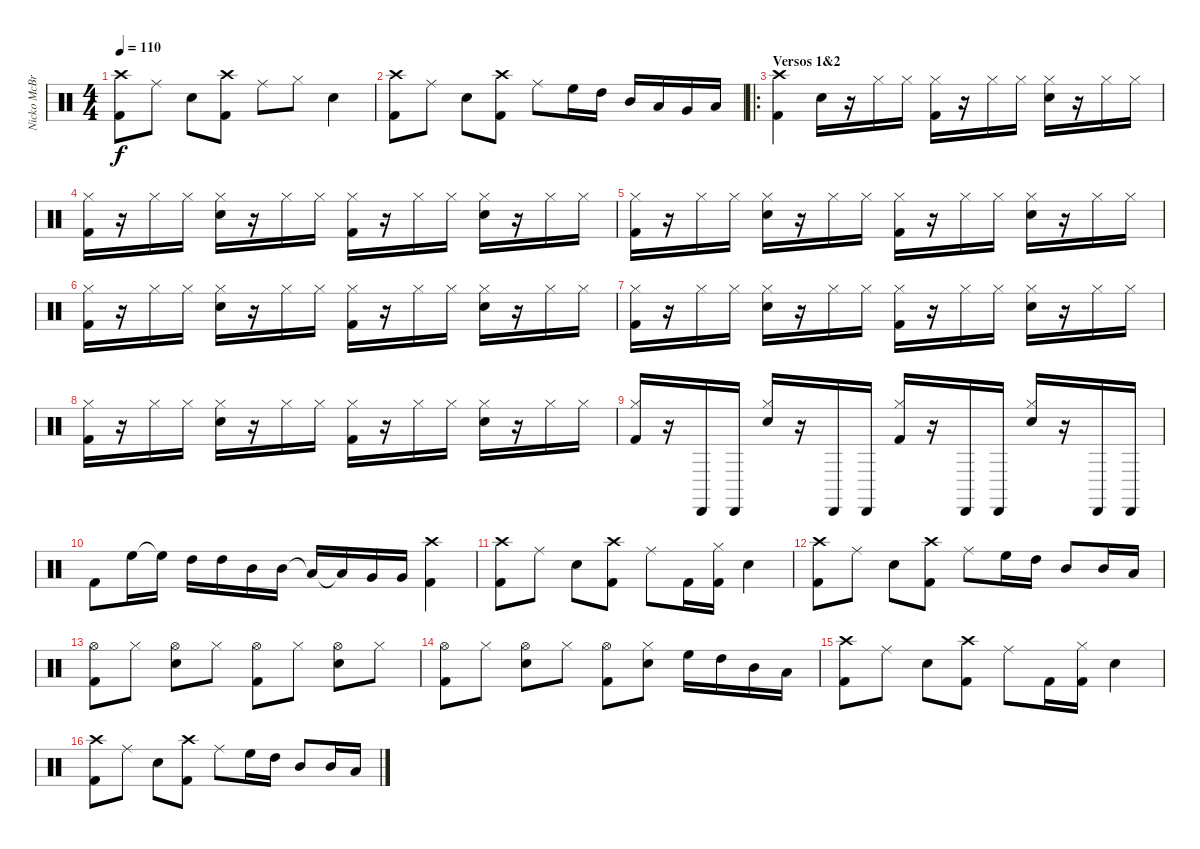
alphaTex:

\track ("Nicko McBrain" "Nicko McBr") {instrument percussion}
\staff {score}
\articulation defaults
\ts (4 4)
\tempo 110
\clef neutral
\ks c
("Crash high (hit)" "Kick (hit) 2").8{dy f} "Ride (middle)".8 "Snare (hit) 2".8 ("Crash high (hit)" "Kick (hit) 2").8 "Ride (middle)".8 "Hi-Hat (closed)".8 "Snare (hit) 2".4 |
("Crash high (hit)" "Kick (hit) 2").8 "Ride (middle)".8 "Snare (hit) 2".8 ("Crash high (hit)" "Kick (hit) 2").8 "Ride (middle)".8 "High Floor Tom (hit)".16 "High Tom (hit)".16 "Mid Tom (hit)".16 "Low Tom (hit)".16 "Very Low Tom (hit)".16 "Low Floor Tom (hit)".16 |
\ro
\section ("" "Versos 1&2")
("Crash high (hit)" "Kick (hit) 2").4 "Snare (hit) 2".16 r.16 "Hi-Hat (closed)".16 "Hi-Hat (closed)".16 ("Hi-Hat (closed)" "Kick (hit) 2").16 r.16 "Hi-Hat (closed)".16 "Hi-Hat (closed)".16 ("Hi-Hat (closed)" "Snare (hit) 2").16 r.16 "Hi-Hat (closed)".16 "Hi-Hat (closed)".16 |
("Hi-Hat (closed)" "Kick (hit) 2").16 r.16 "Hi-Hat (closed)".16 "Hi-Hat (closed)".16 ("Hi-Hat (closed)" "Snare (hit) 2").16 r.16 "Hi-Hat (closed)".16 "Hi-Hat (closed)".16 ("Hi-Hat (closed)" "Kick (hit) 2").16 r.16 "Hi-Hat (closed)".16 "Hi-Hat (closed)".16 ("Hi-Hat (closed)" "Snare (hit) 2").16 r.16 "Hi-Hat (closed)".16 "Hi-Hat (closed)".16 |
("Hi-Hat (closed)" "Kick (hit) 2").16 r.16 "Hi-Hat (closed)".16 "Hi-Hat (closed)".16 ("Hi-Hat (closed)" "Snare (hit) 2").16 r.16 "Hi-Hat (closed)".16 "Hi-Hat (closed)".16 ("Hi-Hat (closed)" "Kick (hit) 2").16 r.16 "Hi-Hat (closed)".16 "Hi-Hat (closed)".16 ("Hi-Hat (closed)" "Snare (hit) 2").16 r.16 "Hi-Hat (closed)".16 "Hi-Hat (closed)".16 |
("Hi-Hat (closed)" "Kick (hit) 2").16 r.16 "Hi-Hat (closed)".16 "Hi-Hat (closed)".16 ("Hi-Hat (closed)" "Snare (hit) 2").16 r.16 "Hi-Hat (closed)".16 "Hi-Hat (closed)".16 ("Hi-Hat (closed)" "Kick (hit) 2").16 r.16 "Hi-Hat (closed)".16 "Hi-Hat (closed)".16 ("Hi-Hat (closed)" "Snare (hit) 2").16 r.16 "Hi-Hat (closed)".16 "Hi-Hat (closed)".16 |
("Hi-Hat (closed)" "Kick (hit) 2").16 r.16 "Hi-Hat (closed)".16 "Hi-Hat (closed)".16 ("Hi-Hat (closed)" "Snare (hit) 2").16 r.16 "Hi-Hat (closed)".16 "Hi-Hat (closed)".16 ("Hi-Hat (closed)" "Kick (hit) 2").16 r.16 "Hi-Hat (closed)".16 "Hi-Hat (closed)".16 ("Hi-Hat (closed)" "Snare (hit) 2").16 r.16 "Hi-Hat (closed)".16 "Hi-Hat (closed)".16 |
("Hi-Hat (closed)" "Kick (hit) 2").16 r.16 "Hi-Hat (closed)".16 "Hi-Hat (closed)".16 ("Hi-Hat (closed)" "Snare (hit) 2").16 r.16 "Hi-Hat (closed)".16 "Hi-Hat (closed)".16 ("Hi-Hat (closed)" "Kick (hit) 2").16 r.16 "Hi-Hat (closed)".16 "Hi-Hat (closed)".16 ("Hi-Hat (closed)" "Snare (hit) 2").16 r.16 "Hi-Hat (closed)".16 "Hi-Hat (closed)".16 |
("Hi-Hat (closed)" "Kick (hit) 2").16 r.16 "Cabasa (hit)".16 "Cabasa (hit)".16 ("Hi-Hat (closed)" "Snare (hit) 2").16 r.16 "Cabasa (hit)".16 "Cabasa (hit)".16 ("Hi-Hat (closed)" "Kick (hit) 2").16 r.16 "Cabasa (hit)".16 "Cabasa (hit)".16 ("Hi-Hat (closed)" "Snare (hit) 2").16 r.16 "Cabasa (hit)".16 "Cabasa (hit)".16 |
"Kick (hit) 2".8 "High Floor Tom (hit)".16 "High Floor Tom (hit)"{t}.16 "High Tom (hit)".16 "High Tom (hit)".16 "Mid Tom (hit)".16 "Mid Tom (hit)".16 "Low Tom (hit)"{t}.16 "Low Tom (hit)"{t}.16 "Very Low Tom (hit)".16 "Very Low Tom (hit)".16 ("Crash high (hit)" "Kick (hit) 2").4 |
("Crash high (hit)" "Kick (hit) 2").8 "Ride (middle)".8 "Snare (hit) 2".8 ("Crash high (hit)" "Kick (hit) 2").8 "Ride (middle)".8 "Kick (hit) 2".16 ("Hi-Hat (closed)" "Kick (hit) 2").16 "Snare (hit) 2".4 |
("Crash high (hit)" "Kick (hit) 2").8 "Ride (middle)".8 "Snare (hit) 2".8 ("Crash high (hit)" "Kick (hit) 2").8 "Ride (middle)".8 "High Floor Tom (hit)".16 "High Tom (hit)".16 "Mid Tom (hit)".8 "Mid Tom (hit)".16 "Low Tom (hit)".16 |
("Hi-Hat (open)" "Kick (hit) 2").8 "Hi-Hat (closed)".8 ("Hi-Hat (open)" "Snare (hit) 2").8 "Hi-Hat (closed)".8 ("Hi-Hat (open)" "Kick (hit) 2").8 "Hi-Hat (closed)".8 ("Hi-Hat (open)" "Snare (hit) 2").8 "Hi-Hat (closed)".8 |
("Hi-Hat (open)" "Kick (hit) 2").8 "Hi-Hat (closed)".8 ("Hi-Hat (open)" "Snare (hit) 2").8 "Hi-Hat (closed)".8 ("Hi-Hat (open)" "Kick (hit) 2").8 ("Hi-Hat (closed)" "Snare (hit) 2").8 "High Floor Tom (hit)".16 "High Tom (hit)".16 "Mid Tom (hit)".16 "Low Tom (hit)".16 |
("Crash high (hit)" "Kick (hit) 2").8 "Ride (middle)".8 "Snare (hit) 2".8 ("Crash high (hit)" "Kick (hit) 2").8 "Ride (middle)".8 "Kick (hit) 2".16 ("Hi-Hat (closed)" "Kick (hit) 2").16 "Snare (hit) 2".4 |
("Crash high (hit)" "Kick (hit) 2").8 "Ride (middle)".8 "Snare (hit) 2".8 ("Crash high (hit)" "Kick (hit) 2").8 "Ride (middle)".8 "High Floor Tom (hit)".16 "High Tom (hit)".16 "Mid Tom (hit)".8 "Mid Tom (hit)".16 "Low Tom (hit)".16
